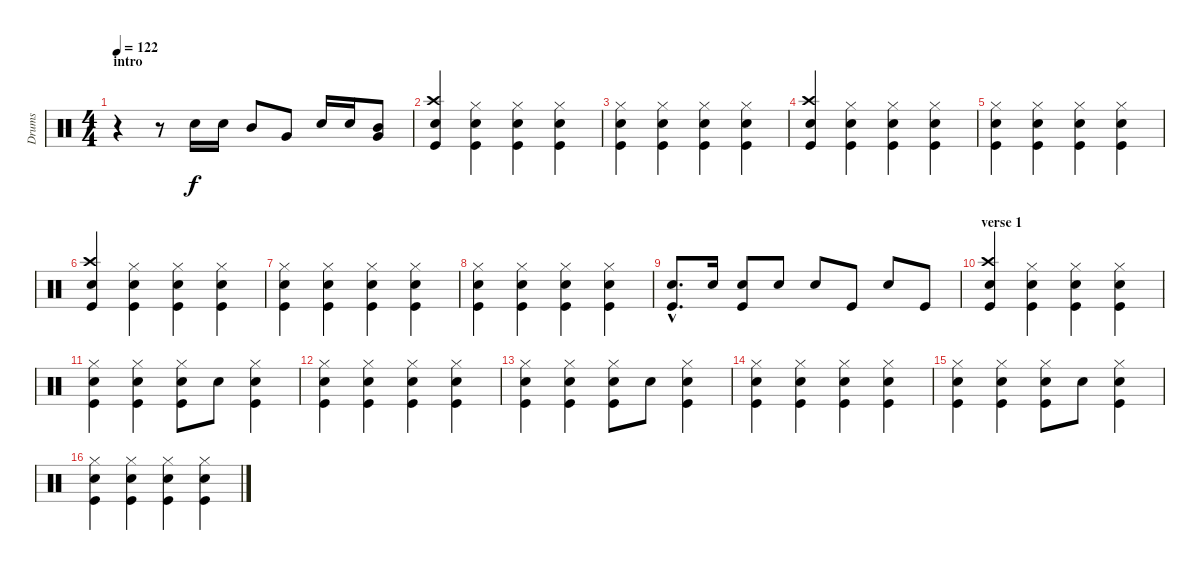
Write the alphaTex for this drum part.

\track ("Drums" "Drums") {instrument percussion}
\staff {score}
\articulation defaults
\ts (4 4)
\section ("" "intro")
\tempo 122
\clef neutral
\ks c
r.4{dy f} r.8 "Electric Snare (hit)".16 "Electric Snare (hit)".16 "Mid Tom (hit)".8 "Very Low Tom (hit)".8 "Electric Snare (hit)".16 "Electric Snare (hit)".16 ("Mid Tom (hit)" "Very Low Tom (hit)").8 |
("Crash high (hit)" "Electric Snare (hit)" "Kick (hit)").4 ("Hi-Hat (closed)" "Electric Snare (hit)" "Kick (hit)").4 ("Hi-Hat (closed)" "Electric Snare (hit)" "Kick (hit)").4 ("Hi-Hat (closed)" "Electric Snare (hit)" "Kick (hit)").4 |
("Hi-Hat (closed)" "Electric Snare (hit)" "Kick (hit)").4 ("Hi-Hat (closed)" "Electric Snare (hit)" "Kick (hit)").4 ("Hi-Hat (closed)" "Electric Snare (hit)" "Kick (hit)").4 ("Hi-Hat (closed)" "Electric Snare (hit)" "Kick (hit)").4 |
("Crash high (hit)" "Electric Snare (hit)" "Kick (hit)").4 ("Hi-Hat (closed)" "Electric Snare (hit)" "Kick (hit)").4 ("Hi-Hat (closed)" "Electric Snare (hit)" "Kick (hit)").4 ("Hi-Hat (closed)" "Electric Snare (hit)" "Kick (hit)").4 |
("Hi-Hat (closed)" "Electric Snare (hit)" "Kick (hit)").4 ("Hi-Hat (closed)" "Electric Snare (hit)" "Kick (hit)").4 ("Hi-Hat (closed)" "Electric Snare (hit)" "Kick (hit)").4 ("Hi-Hat (closed)" "Electric Snare (hit)" "Kick (hit)").4 |
("Crash high (hit)" "Electric Snare (hit)" "Kick (hit)").4 ("Hi-Hat (closed)" "Electric Snare (hit)" "Kick (hit)").4 ("Hi-Hat (closed)" "Electric Snare (hit)" "Kick (hit)").4 ("Hi-Hat (closed)" "Electric Snare (hit)" "Kick (hit)").4 |
("Hi-Hat (closed)" "Electric Snare (hit)" "Kick (hit)").4 ("Hi-Hat (closed)" "Electric Snare (hit)" "Kick (hit)").4 ("Hi-Hat (closed)" "Electric Snare (hit)" "Kick (hit)").4 ("Hi-Hat (closed)" "Electric Snare (hit)" "Kick (hit)").4 |
("Hi-Hat (closed)" "Electric Snare (hit)" "Kick (hit)").4 ("Hi-Hat (closed)" "Electric Snare (hit)" "Kick (hit)").4 ("Hi-Hat (closed)" "Electric Snare (hit)" "Kick (hit)").4 ("Hi-Hat (closed)" "Electric Snare (hit)" "Kick (hit)").4 |
("Electric Snare (hit)"{hac} "Kick (hit)"{hac}).8{d} "Electric Snare (hit)".16 ("Electric Snare (hit)" "Kick (hit)").8 "Electric Snare (hit)".8 "Electric Snare (hit)".8 "Kick (hit)".8 "Electric Snare (hit)".8 "Kick (hit)".8 |
\section ("" "verse 1")
("Crash high (hit)" "Electric Snare (hit)" "Kick (hit)").4 ("Hi-Hat (closed)" "Electric Snare (hit)" "Kick (hit)").4 ("Hi-Hat (closed)" "Electric Snare (hit)" "Kick (hit)").4 ("Hi-Hat (closed)" "Electric Snare (hit)" "Kick (hit)").4 |
("Hi-Hat (closed)" "Electric Snare (hit)" "Kick (hit)").4 ("Hi-Hat (closed)" "Electric Snare (hit)" "Kick (hit)").4 ("Hi-Hat (closed)" "Electric Snare (hit)" "Kick (hit)").8 "Electric Snare (hit)".8 ("Hi-Hat (closed)" "Electric Snare (hit)" "Kick (hit)").4 |
("Hi-Hat (closed)" "Electric Snare (hit)" "Kick (hit)").4 ("Hi-Hat (closed)" "Electric Snare (hit)" "Kick (hit)").4 ("Hi-Hat (closed)" "Electric Snare (hit)" "Kick (hit)").4 ("Hi-Hat (closed)" "Electric Snare (hit)" "Kick (hit)").4 |
("Hi-Hat (closed)" "Electric Snare (hit)" "Kick (hit)").4 ("Hi-Hat (closed)" "Electric Snare (hit)" "Kick (hit)").4 ("Hi-Hat (closed)" "Electric Snare (hit)" "Kick (hit)").8 "Electric Snare (hit)".8 ("Hi-Hat (closed)" "Electric Snare (hit)" "Kick (hit)").4 |
("Hi-Hat (closed)" "Electric Snare (hit)" "Kick (hit)").4 ("Hi-Hat (closed)" "Electric Snare (hit)" "Kick (hit)").4 ("Hi-Hat (closed)" "Electric Snare (hit)" "Kick (hit)").4 ("Hi-Hat (closed)" "Electric Snare (hit)" "Kick (hit)").4 |
("Hi-Hat (closed)" "Electric Snare (hit)" "Kick (hit)").4 ("Hi-Hat (closed)" "Electric Snare (hit)" "Kick (hit)").4 ("Hi-Hat (closed)" "Electric Snare (hit)" "Kick (hit)").8 "Electric Snare (hit)".8 ("Hi-Hat (closed)" "Electric Snare (hit)" "Kick (hit)").4 |
("Hi-Hat (closed)" "Electric Snare (hit)" "Kick (hit)").4 ("Hi-Hat (closed)" "Electric Snare (hit)" "Kick (hit)").4 ("Hi-Hat (closed)" "Electric Snare (hit)" "Kick (hit)").4 ("Hi-Hat (closed)" "Electric Snare (hit)" "Kick (hit)").4
